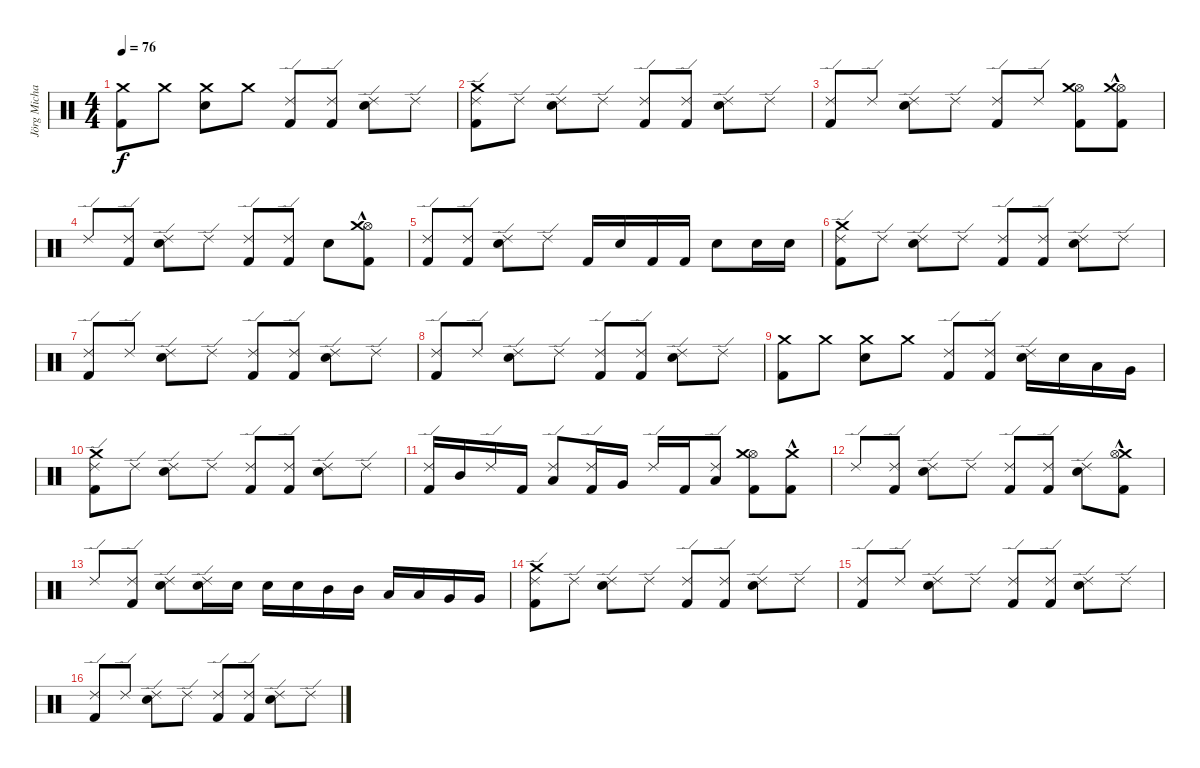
\track ("Jörg Michael" "Jörg Micha") {instrument percussion}
\staff {score}
\articulation defaults
\ts (4 4)
\tempo 76
\clef neutral
\ks c
("Crash medium (hit)" "Kick (hit) 2").8{dy f} "Crash medium (hit)".8 ("Crash medium (hit)" "Electric Snare (hit)").8 "Crash medium (hit)".8 ("Ride (edge) 2" "Kick (hit) 2").8 ("Ride (edge) 2" "Kick (hit) 2").8 ("Electric Snare (hit)" "Ride (edge) 2").8 "Ride (edge) 2".8 |
("Ride (edge) 2" "Crash medium (hit)" "Kick (hit) 2").8 "Ride (edge) 2".8 ("Ride (edge) 2" "Electric Snare (hit)").8 "Ride (edge) 2".8 ("Ride (edge) 2" "Kick (hit) 2").8 ("Ride (edge) 2" "Kick (hit) 2").8 ("Ride (edge) 2" "Electric Snare (hit)").8 "Ride (edge) 2".8 |
("Kick (hit) 2" "Ride (edge) 2").8 "Ride (edge) 2".8 ("Electric Snare (hit)" "Ride (edge) 2").8 "Ride (edge) 2".8 ("Kick (hit) 2" "Ride (edge) 2").8 "Ride (edge) 2".8 ("Hi-Hat (open)" "Crash medium (hit)" "Kick (hit) 2").8 ("Hi-Hat (open)" "Crash medium (hit)"{hac} "Kick (hit) 2").8 |
"Ride (edge) 2".8 ("Ride (edge) 2" "Kick (hit) 2").8 ("Ride (edge) 2" "Electric Snare (hit)").8 "Ride (edge) 2".8 ("Ride (edge) 2" "Kick (hit) 2").8 ("Ride (edge) 2" "Kick (hit) 2").8 "Electric Snare (hit)".8 ("Hi-Hat (open)" "Crash medium (hit)"{hac} "Kick (hit) 2").8 |
("Ride (edge) 2" "Kick (hit) 2").8 ("Kick (hit) 2" "Ride (edge) 2").8 ("Electric Snare (hit)" "Ride (edge) 2").8 "Ride (edge) 2".8 "Kick (hit) 2".16 "Electric Snare (hit)".16 "Kick (hit) 2".16 "Kick (hit) 2".16 "Electric Snare (hit)".8 "Electric Snare (hit)".16 "Electric Snare (hit)".16 |
("Ride (edge) 2" "Crash medium (hit)" "Kick (hit) 2").8 "Ride (edge) 2".8 ("Ride (edge) 2" "Electric Snare (hit)").8 "Ride (edge) 2".8 ("Ride (edge) 2" "Kick (hit) 2").8 ("Ride (edge) 2" "Kick (hit) 2").8 ("Ride (edge) 2" "Electric Snare (hit)").8 "Ride (edge) 2".8 |
("Ride (edge) 2" "Kick (hit) 2").8 "Ride (edge) 2".8 ("Ride (edge) 2" "Electric Snare (hit)").8 "Ride (edge) 2".8 ("Ride (edge) 2" "Kick (hit) 2").8 ("Ride (edge) 2" "Kick (hit) 2").8 ("Ride (edge) 2" "Electric Snare (hit)").8 "Ride (edge) 2".8 |
("Ride (edge) 2" "Kick (hit) 2").8 "Ride (edge) 2".8 ("Ride (edge) 2" "Electric Snare (hit)").8 "Ride (edge) 2".8 ("Ride (edge) 2" "Kick (hit) 2").8 ("Ride (edge) 2" "Kick (hit) 2").8 ("Ride (edge) 2" "Electric Snare (hit)").8 "Ride (edge) 2".8 |
("Crash medium (hit)" "Kick (hit) 2").8 "Crash medium (hit)".8 ("Crash medium (hit)" "Electric Snare (hit)").8 "Crash medium (hit)".8 ("Ride (edge) 2" "Kick (hit) 2").8 ("Ride (edge) 2" "Kick (hit) 2").8 ("Electric Snare (hit)" "Ride (edge) 2").16 "Electric Snare (hit)".16 "Low Tom (hit)".16 "Very Low Tom (hit)".16 |
("Ride (edge) 2" "Crash medium (hit)" "Kick (hit) 2").8 "Ride (edge) 2".8 ("Ride (edge) 2" "Electric Snare (hit)").8 "Ride (edge) 2".8 ("Ride (edge) 2" "Kick (hit) 2").8 ("Ride (edge) 2" "Kick (hit) 2").8 ("Ride (edge) 2" "Electric Snare (hit)").8 "Ride (edge) 2".8 |
("Kick (hit) 2" "Ride (edge) 2").16 "Mid Tom (hit)".16 "Ride (edge) 2".16 "Kick (hit) 2".16 ("Low Tom (hit)" "Ride (edge) 2").8 ("Kick (hit) 2" "Ride (edge) 2").16 "Very Low Tom (hit)".16 "Ride (edge) 2".16 "Kick (hit) 2".16 ("Low Floor Tom (hit)" "Ride (edge) 2").8 ("Hi-Hat (open)" "Crash medium (hit)" "Kick (hit) 2").8 ("Crash medium (hit)"{hac} "Kick (hit) 2").8 |
"Ride (edge) 2".8 ("Ride (edge) 2" "Kick (hit) 2").8 ("Ride (edge) 2" "Electric Snare (hit)").8 "Ride (edge) 2".8 ("Ride (edge) 2" "Kick (hit) 2").8 ("Ride (edge) 2" "Kick (hit) 2").8 ("Ride (edge) 2" "Electric Snare (hit)").8 ("Crash medium (hit)"{hac} "Hi-Hat (open)"{hac} "Kick (hit) 2").8 |
"Ride (edge) 2".8 ("Kick (hit) 2" "Ride (edge) 2").8 ("Electric Snare (hit)" "Ride (edge) 2").8 ("Electric Snare (hit)" "Ride (edge) 2").16 "Electric Snare (hit)".16 "Electric Snare (hit)".16 "Electric Snare (hit)".16 "Mid Tom (hit)".16 "Mid Tom (hit)".16 "Low Tom (hit)".16 "Low Tom (hit)".16 "Very Low Tom (hit)".16 "Very Low Tom (hit)".16 |
("Ride (edge) 2" "Crash medium (hit)" "Kick (hit) 2").8 "Ride (edge) 2".8 ("Ride (edge) 2" "Electric Snare (hit)").8 "Ride (edge) 2".8 ("Ride (edge) 2" "Kick (hit) 2").8 ("Ride (edge) 2" "Kick (hit) 2").8 ("Ride (edge) 2" "Electric Snare (hit)").8 "Ride (edge) 2".8 |
("Ride (edge) 2" "Kick (hit) 2").8 "Ride (edge) 2".8 ("Ride (edge) 2" "Electric Snare (hit)").8 "Ride (edge) 2".8 ("Ride (edge) 2" "Kick (hit) 2").8 ("Ride (edge) 2" "Kick (hit) 2").8 ("Ride (edge) 2" "Electric Snare (hit)").8 "Ride (edge) 2".8 |
("Ride (edge) 2" "Kick (hit) 2").8{volume 11} "Ride (edge) 2".8{volume 10} ("Ride (edge) 2" "Electric Snare (hit)").8{volume 10} "Ride (edge) 2".8{volume 9} ("Ride (edge) 2" "Kick (hit) 2").8{volume 9} ("Ride (edge) 2" "Kick (hit) 2").8{volume 8} ("Ride (edge) 2" "Electric Snare (hit)").8{volume 8} "Ride (edge) 2".8{volume 8}
